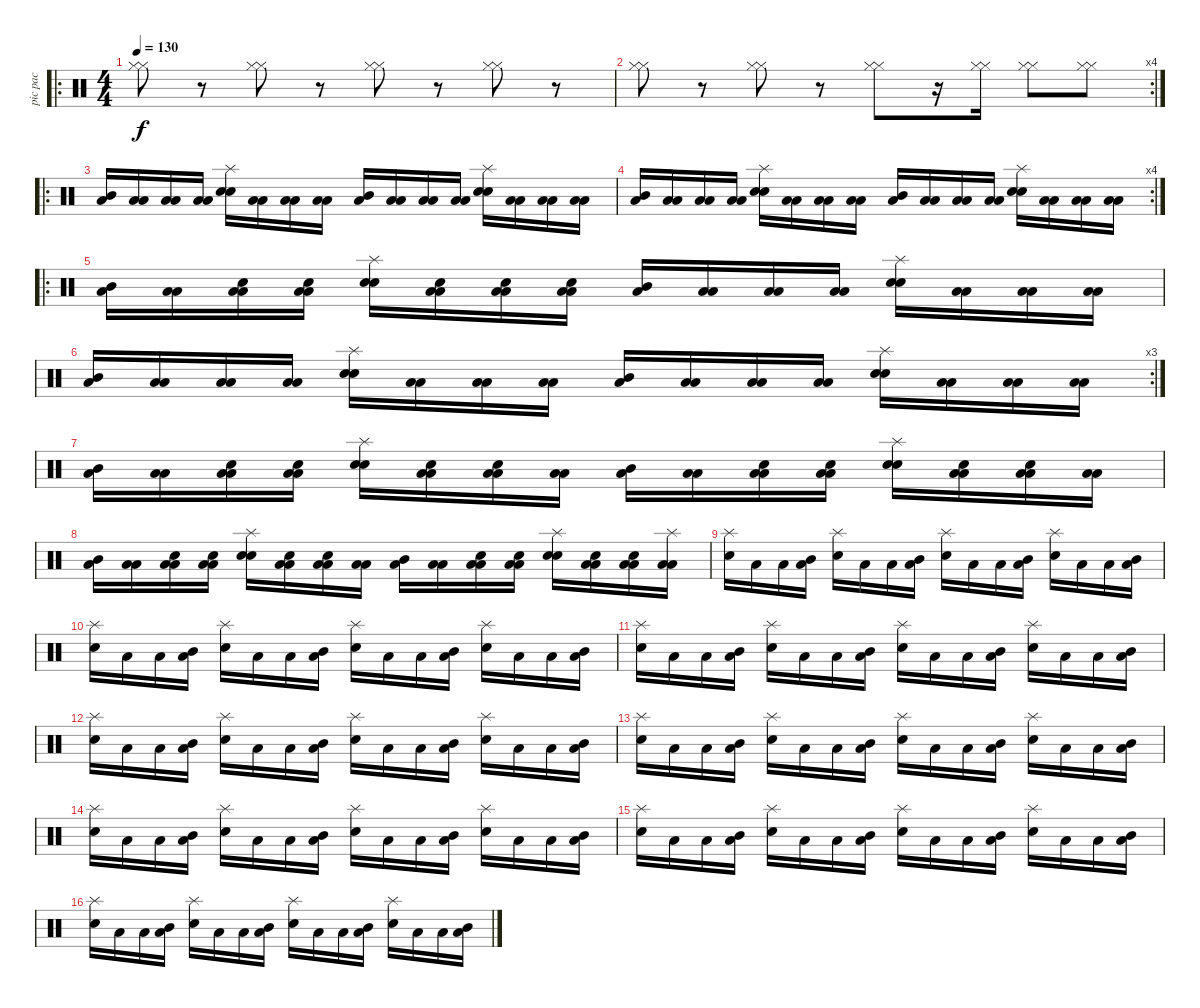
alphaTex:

\track ("pic pac" "pic pac") {instrument percussion}
\staff {score}
\articulation defaults
\ro
\ts (4 4)
\tempo 130
\clef neutral
\ks c
("Hi-Hat (closed)" "Hi-Hat (closed)").8{dy f} r.8 ("Hi-Hat (closed)" "Hi-Hat (closed)").8 r.8 ("Hi-Hat (closed)" "Hi-Hat (closed)").8 r.8 ("Hi-Hat (closed)" "Hi-Hat (closed)").8 r.8 |
\rc 4
("Hi-Hat (closed)" "Hi-Hat (closed)").8 r.8 ("Hi-Hat (closed)" "Hi-Hat (closed)").8 r.8 ("Hi-Hat (closed)" "Hi-Hat (closed)").8 r.16 ("Hi-Hat (closed)" "Hi-Hat (closed)").16 ("Hi-Hat (closed)" "Hi-Hat (closed)").8 ("Hi-Hat (closed)" "Hi-Hat (closed)").8 |
\ro
("Mid Tom (hit)" "Low Floor Tom (hit)").16 ("Low Floor Tom (hit)" "Low Floor Tom (hit)").16 ("Low Floor Tom (hit)" "Low Floor Tom (hit)").16 ("Low Floor Tom (hit)" "Low Floor Tom (hit)").16 ("Snare (hit) 2" "Snare (hit) 2" "Splash (hit)").16 ("Low Floor Tom (hit)" "Low Floor Tom (hit)").16 ("Low Floor Tom (hit)" "Low Floor Tom (hit)").16 ("Low Floor Tom (hit)" "Low Floor Tom (hit)").16 ("Mid Tom (hit)" "Low Floor Tom (hit)").16 ("Low Floor Tom (hit)" "Low Floor Tom (hit)").16 ("Low Floor Tom (hit)" "Low Floor Tom (hit)").16 ("Low Floor Tom (hit)" "Low Floor Tom (hit)").16 ("Snare (hit) 2" "Snare (hit) 2" "Splash (hit)").16 ("Low Floor Tom (hit)" "Low Floor Tom (hit)").16 ("Low Floor Tom (hit)" "Low Floor Tom (hit)").16 ("Low Floor Tom (hit)" "Low Floor Tom (hit)").16 |
\rc 4
("Mid Tom (hit)" "Low Floor Tom (hit)").16 ("Low Floor Tom (hit)" "Low Floor Tom (hit)").16 ("Low Floor Tom (hit)" "Low Floor Tom (hit)").16 ("Low Floor Tom (hit)" "Low Floor Tom (hit)").16 ("Snare (hit) 2" "Snare (hit) 2" "Splash (hit)").16 ("Low Floor Tom (hit)" "Low Floor Tom (hit)").16 ("Low Floor Tom (hit)" "Low Floor Tom (hit)").16 ("Low Floor Tom (hit)" "Low Floor Tom (hit)").16 ("Mid Tom (hit)" "Low Floor Tom (hit)").16 ("Low Floor Tom (hit)" "Low Floor Tom (hit)").16 ("Low Floor Tom (hit)" "Low Floor Tom (hit)").16 ("Low Floor Tom (hit)" "Low Floor Tom (hit)").16 ("Snare (hit) 2" "Snare (hit) 2" "Splash (hit)").16 ("Low Floor Tom (hit)" "Low Floor Tom (hit)").16 ("Low Floor Tom (hit)" "Low Floor Tom (hit)").16 ("Low Floor Tom (hit)" "Low Floor Tom (hit)").16 |
\ro
("Mid Tom (hit)" "Low Floor Tom (hit)").16 ("Low Floor Tom (hit)" "Low Floor Tom (hit)").16 ("Low Floor Tom (hit)" "Low Floor Tom (hit)" "Snare (hit) 2").16 ("Low Floor Tom (hit)" "Low Floor Tom (hit)" "Snare (hit) 2").16 ("Snare (hit) 2" "Snare (hit) 2" "Splash (hit)").16 ("Low Floor Tom (hit)" "Low Floor Tom (hit)" "Snare (hit) 2").16 ("Low Floor Tom (hit)" "Low Floor Tom (hit)" "Snare (hit) 2").16 ("Low Floor Tom (hit)" "Low Floor Tom (hit)" "Snare (hit) 2").16 ("Mid Tom (hit)" "Low Floor Tom (hit)").16 ("Low Floor Tom (hit)" "Low Floor Tom (hit)").16 ("Low Floor Tom (hit)" "Low Floor Tom (hit)").16 ("Low Floor Tom (hit)" "Low Floor Tom (hit)").16 ("Snare (hit) 2" "Snare (hit) 2" "Splash (hit)").16 ("Low Floor Tom (hit)" "Low Floor Tom (hit)").16 ("Low Floor Tom (hit)" "Low Floor Tom (hit)").16 ("Low Floor Tom (hit)" "Low Floor Tom (hit)").16 |
\rc 3
("Mid Tom (hit)" "Low Floor Tom (hit)").16 ("Low Floor Tom (hit)" "Low Floor Tom (hit)").16 ("Low Floor Tom (hit)" "Low Floor Tom (hit)").16 ("Low Floor Tom (hit)" "Low Floor Tom (hit)").16 ("Snare (hit) 2" "Snare (hit) 2" "Splash (hit)").16 ("Low Floor Tom (hit)" "Low Floor Tom (hit)").16 ("Low Floor Tom (hit)" "Low Floor Tom (hit)").16 ("Low Floor Tom (hit)" "Low Floor Tom (hit)").16 ("Mid Tom (hit)" "Low Floor Tom (hit)").16 ("Low Floor Tom (hit)" "Low Floor Tom (hit)").16 ("Low Floor Tom (hit)" "Low Floor Tom (hit)").16 ("Low Floor Tom (hit)" "Low Floor Tom (hit)").16 ("Snare (hit) 2" "Snare (hit) 2" "Splash (hit)").16 ("Low Floor Tom (hit)" "Low Floor Tom (hit)").16 ("Low Floor Tom (hit)" "Low Floor Tom (hit)").16 ("Low Floor Tom (hit)" "Low Floor Tom (hit)").16 |
("Mid Tom (hit)" "Low Floor Tom (hit)").16 ("Low Floor Tom (hit)" "Low Floor Tom (hit)").16 ("Low Floor Tom (hit)" "Low Floor Tom (hit)" "Snare (hit) 2").16 ("Low Floor Tom (hit)" "Low Floor Tom (hit)" "Snare (hit) 2").16 ("Snare (hit) 2" "Snare (hit) 2" "Splash (hit)").16 ("Low Floor Tom (hit)" "Low Floor Tom (hit)" "Snare (hit) 2").16 ("Low Floor Tom (hit)" "Low Floor Tom (hit)" "Snare (hit) 2").16 ("Low Floor Tom (hit)" "Low Floor Tom (hit)").16 ("Mid Tom (hit)" "Low Floor Tom (hit)").16 ("Low Floor Tom (hit)" "Low Floor Tom (hit)").16 ("Low Floor Tom (hit)" "Low Floor Tom (hit)" "Snare (hit) 2").16 ("Low Floor Tom (hit)" "Low Floor Tom (hit)" "Snare (hit) 2").16 ("Snare (hit) 2" "Snare (hit) 2" "Splash (hit)").16 ("Low Floor Tom (hit)" "Low Floor Tom (hit)" "Snare (hit) 2").16 ("Low Floor Tom (hit)" "Low Floor Tom (hit)" "Snare (hit) 2").16 ("Low Floor Tom (hit)" "Low Floor Tom (hit)").16 |
("Mid Tom (hit)" "Low Floor Tom (hit)").16 ("Low Floor Tom (hit)" "Low Floor Tom (hit)").16 ("Low Floor Tom (hit)" "Low Floor Tom (hit)" "Snare (hit) 2").16 ("Low Floor Tom (hit)" "Low Floor Tom (hit)" "Snare (hit) 2").16 ("Snare (hit) 2" "Snare (hit) 2" "Splash (hit)").16 ("Low Floor Tom (hit)" "Low Floor Tom (hit)" "Snare (hit) 2").16 ("Low Floor Tom (hit)" "Low Floor Tom (hit)" "Snare (hit) 2").16 ("Low Floor Tom (hit)" "Low Floor Tom (hit)").16 ("Mid Tom (hit)" "Low Floor Tom (hit)").16 ("Low Floor Tom (hit)" "Low Floor Tom (hit)").16 ("Low Floor Tom (hit)" "Low Floor Tom (hit)" "Snare (hit) 2").16 ("Low Floor Tom (hit)" "Low Floor Tom (hit)" "Snare (hit) 2").16 ("Snare (hit) 2" "Snare (hit) 2" "Splash (hit)").16 ("Low Floor Tom (hit)" "Low Floor Tom (hit)" "Snare (hit) 2").16 ("Low Floor Tom (hit)" "Low Floor Tom (hit)" "Snare (hit) 2").16 ("Low Floor Tom (hit)" "Low Floor Tom (hit)" "Splash (hit)").16 |
("Snare (hit) 2" "Splash (hit)").16 "Low Floor Tom (hit)".16 "Low Floor Tom (hit)".16 ("Low Floor Tom (hit)" "Mid Tom (hit)").16 ("Snare (hit) 2" "Splash (hit)").16 "Low Floor Tom (hit)".16 "Low Floor Tom (hit)".16 ("Low Floor Tom (hit)" "Mid Tom (hit)").16 ("Snare (hit) 2" "Splash (hit)").16 "Low Floor Tom (hit)".16 "Low Floor Tom (hit)".16 ("Low Floor Tom (hit)" "Mid Tom (hit)").16 ("Snare (hit) 2" "Splash (hit)").16 "Low Floor Tom (hit)".16 "Low Floor Tom (hit)".16 ("Low Floor Tom (hit)" "Mid Tom (hit)").16 |
("Snare (hit) 2" "Splash (hit)").16 "Low Floor Tom (hit)".16 "Low Floor Tom (hit)".16 ("Low Floor Tom (hit)" "Mid Tom (hit)").16 ("Snare (hit) 2" "Splash (hit)").16 "Low Floor Tom (hit)".16 "Low Floor Tom (hit)".16 ("Low Floor Tom (hit)" "Mid Tom (hit)").16 ("Snare (hit) 2" "Splash (hit)").16 "Low Floor Tom (hit)".16 "Low Floor Tom (hit)".16 ("Low Floor Tom (hit)" "Mid Tom (hit)").16 ("Snare (hit) 2" "Splash (hit)").16 "Low Floor Tom (hit)".16 "Low Floor Tom (hit)".16 ("Low Floor Tom (hit)" "Mid Tom (hit)").16 |
("Snare (hit) 2" "Splash (hit)").16 "Low Floor Tom (hit)".16 "Low Floor Tom (hit)".16 ("Low Floor Tom (hit)" "Mid Tom (hit)").16 ("Snare (hit) 2" "Splash (hit)").16 "Low Floor Tom (hit)".16 "Low Floor Tom (hit)".16 ("Low Floor Tom (hit)" "Mid Tom (hit)").16 ("Snare (hit) 2" "Splash (hit)").16 "Low Floor Tom (hit)".16 "Low Floor Tom (hit)".16 ("Low Floor Tom (hit)" "Mid Tom (hit)").16 ("Snare (hit) 2" "Splash (hit)").16 "Low Floor Tom (hit)".16 "Low Floor Tom (hit)".16 ("Low Floor Tom (hit)" "Mid Tom (hit)").16 |
("Snare (hit) 2" "Splash (hit)").16 "Low Floor Tom (hit)".16 "Low Floor Tom (hit)".16 ("Low Floor Tom (hit)" "Mid Tom (hit)").16 ("Snare (hit) 2" "Splash (hit)").16 "Low Floor Tom (hit)".16 "Low Floor Tom (hit)".16 ("Low Floor Tom (hit)" "Mid Tom (hit)").16 ("Snare (hit) 2" "Splash (hit)").16 "Low Floor Tom (hit)".16 "Low Floor Tom (hit)".16 ("Low Floor Tom (hit)" "Mid Tom (hit)").16 ("Snare (hit) 2" "Splash (hit)").16 "Low Floor Tom (hit)".16 "Low Floor Tom (hit)".16 ("Low Floor Tom (hit)" "Mid Tom (hit)").16 |
("Snare (hit) 2" "Splash (hit)").16 "Low Floor Tom (hit)".16 "Low Floor Tom (hit)".16 ("Low Floor Tom (hit)" "Mid Tom (hit)").16 ("Snare (hit) 2" "Splash (hit)").16 "Low Floor Tom (hit)".16 "Low Floor Tom (hit)".16 ("Low Floor Tom (hit)" "Mid Tom (hit)").16 ("Snare (hit) 2" "Splash (hit)").16 "Low Floor Tom (hit)".16 "Low Floor Tom (hit)".16 ("Low Floor Tom (hit)" "Mid Tom (hit)").16 ("Snare (hit) 2" "Splash (hit)").16 "Low Floor Tom (hit)".16 "Low Floor Tom (hit)".16 ("Low Floor Tom (hit)" "Mid Tom (hit)").16 |
("Snare (hit) 2" "Splash (hit)").16 "Low Floor Tom (hit)".16 "Low Floor Tom (hit)".16 ("Low Floor Tom (hit)" "Mid Tom (hit)").16 ("Snare (hit) 2" "Splash (hit)").16 "Low Floor Tom (hit)".16 "Low Floor Tom (hit)".16 ("Low Floor Tom (hit)" "Mid Tom (hit)").16 ("Snare (hit) 2" "Splash (hit)").16 "Low Floor Tom (hit)".16 "Low Floor Tom (hit)".16 ("Low Floor Tom (hit)" "Mid Tom (hit)").16 ("Snare (hit) 2" "Splash (hit)").16 "Low Floor Tom (hit)".16 "Low Floor Tom (hit)".16 ("Low Floor Tom (hit)" "Mid Tom (hit)").16 |
("Snare (hit) 2" "Splash (hit)").16 "Low Floor Tom (hit)".16 "Low Floor Tom (hit)".16 ("Low Floor Tom (hit)" "Mid Tom (hit)").16 ("Snare (hit) 2" "Splash (hit)").16 "Low Floor Tom (hit)".16 "Low Floor Tom (hit)".16 ("Low Floor Tom (hit)" "Mid Tom (hit)").16 ("Snare (hit) 2" "Splash (hit)").16 "Low Floor Tom (hit)".16 "Low Floor Tom (hit)".16 ("Low Floor Tom (hit)" "Mid Tom (hit)").16 ("Snare (hit) 2" "Splash (hit)").16 "Low Floor Tom (hit)".16 "Low Floor Tom (hit)".16 ("Low Floor Tom (hit)" "Mid Tom (hit)").16 |
("Snare (hit) 2" "Splash (hit)").16 "Low Floor Tom (hit)".16 "Low Floor Tom (hit)".16 ("Low Floor Tom (hit)" "Mid Tom (hit)").16 ("Snare (hit) 2" "Splash (hit)").16 "Low Floor Tom (hit)".16 "Low Floor Tom (hit)".16 ("Low Floor Tom (hit)" "Mid Tom (hit)").16 ("Snare (hit) 2" "Splash (hit)").16 "Low Floor Tom (hit)".16 "Low Floor Tom (hit)".16 ("Low Floor Tom (hit)" "Mid Tom (hit)").16 ("Snare (hit) 2" "Splash (hit)").16 "Low Floor Tom (hit)".16 "Low Floor Tom (hit)".16 ("Low Floor Tom (hit)" "Mid Tom (hit)").16
